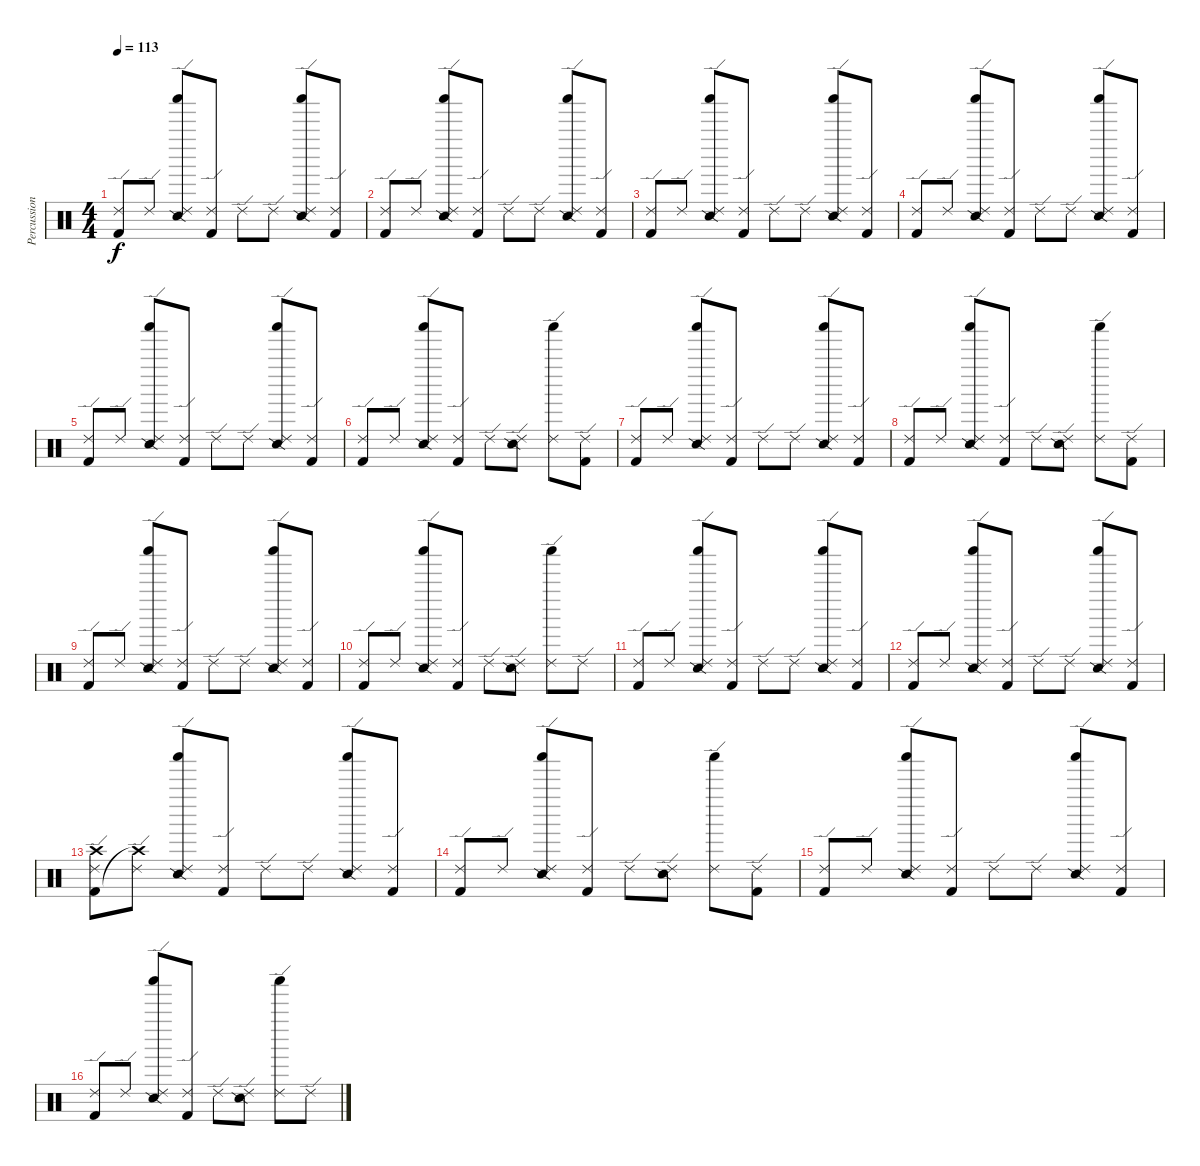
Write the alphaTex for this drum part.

\track ("Percussion" "Percussion") {instrument percussion}
\staff {score}
\articulation defaults
\ts (4 4)
\tempo 113
\clef neutral
\ks c
("Ride (edge) 2" "Kick (hit) 2").8{dy f} "Ride (edge) 2".8 ("Shaker (hit)" "Ride (edge) 2" "Snare (side stick) 2").8 ("Ride (edge) 2" "Kick (hit) 2").8 "Ride (edge) 2".8 "Ride (edge) 2".8 ("Shaker (hit)" "Ride (edge) 2" "Snare (side stick) 2").8 ("Ride (edge) 2" "Kick (hit) 2").8 |
("Ride (edge) 2" "Kick (hit) 2").8 "Ride (edge) 2".8 ("Shaker (hit)" "Ride (edge) 2" "Snare (side stick) 2").8 ("Ride (edge) 2" "Kick (hit) 2").8 "Ride (edge) 2".8 "Ride (edge) 2".8 ("Shaker (hit)" "Ride (edge) 2" "Snare (side stick) 2").8 ("Ride (edge) 2" "Kick (hit) 2").8 |
("Ride (edge) 2" "Kick (hit) 2").8 "Ride (edge) 2".8 ("Shaker (hit)" "Ride (edge) 2" "Snare (side stick) 2").8 ("Ride (edge) 2" "Kick (hit) 2").8 "Ride (edge) 2".8 "Ride (edge) 2".8 ("Shaker (hit)" "Ride (edge) 2" "Snare (side stick) 2").8 ("Ride (edge) 2" "Kick (hit) 2").8 |
("Ride (edge) 2" "Kick (hit) 2").8 "Ride (edge) 2".8 ("Shaker (hit)" "Ride (edge) 2" "Snare (side stick) 2").8 ("Ride (edge) 2" "Kick (hit) 2").8 "Ride (edge) 2".8 "Ride (edge) 2".8 ("Shaker (hit)" "Ride (edge) 2" "Snare (side stick) 2").8 ("Ride (edge) 2" "Kick (hit) 2").8 |
("Ride (edge) 2" "Kick (hit) 2").8 "Ride (edge) 2".8 ("Shaker (hit)" "Ride (edge) 2" "Snare (side stick) 2").8 ("Ride (edge) 2" "Kick (hit) 2").8 "Ride (edge) 2".8 "Ride (edge) 2".8 ("Shaker (hit)" "Ride (edge) 2" "Snare (side stick) 2").8 ("Ride (edge) 2" "Kick (hit) 2").8 |
("Ride (edge) 2" "Kick (hit) 2").8 "Ride (edge) 2".8 ("Shaker (hit)" "Ride (edge) 2" "Snare (side stick) 2").8 ("Ride (edge) 2" "Kick (hit) 2").8 "Ride (edge) 2".8 ("Ride (edge) 2" "Snare (side stick) 2").8 ("Shaker (hit)" "Ride (edge) 2").8 ("Ride (edge) 2" "Kick (hit) 2").8 |
("Ride (edge) 2" "Kick (hit) 2").8 "Ride (edge) 2".8 ("Shaker (hit)" "Ride (edge) 2" "Snare (side stick) 2").8 ("Ride (edge) 2" "Kick (hit) 2").8 "Ride (edge) 2".8 "Ride (edge) 2".8 ("Shaker (hit)" "Ride (edge) 2" "Snare (side stick) 2").8 ("Ride (edge) 2" "Kick (hit) 2").8 |
("Ride (edge) 2" "Kick (hit) 2").8 "Ride (edge) 2".8 ("Shaker (hit)" "Ride (edge) 2" "Snare (side stick) 2").8 ("Ride (edge) 2" "Kick (hit) 2").8 "Ride (edge) 2".8 ("Ride (edge) 2" "Snare (side stick) 2").8 ("Shaker (hit)" "Ride (edge) 2").8 ("Ride (edge) 2" "Kick (hit) 2").8 |
("Ride (edge) 2" "Kick (hit) 2").8 "Ride (edge) 2".8 ("Shaker (hit)" "Ride (edge) 2" "Snare (side stick) 2").8 ("Ride (edge) 2" "Kick (hit) 2").8 "Ride (edge) 2".8 "Ride (edge) 2".8 ("Shaker (hit)" "Ride (edge) 2" "Snare (side stick) 2").8 ("Ride (edge) 2" "Kick (hit) 2").8 |
("Ride (edge) 2" "Kick (hit) 2").8 "Ride (edge) 2".8 ("Shaker (hit)" "Ride (edge) 2" "Snare (side stick) 2").8 ("Ride (edge) 2" "Kick (hit) 2").8 "Ride (edge) 2".8 ("Ride (edge) 2" "Snare (side stick) 2").8 ("Shaker (hit)" "Ride (edge) 2").8 "Ride (edge) 2".8 |
("Ride (edge) 2" "Kick (hit) 2").8 "Ride (edge) 2".8 ("Shaker (hit)" "Ride (edge) 2" "Snare (side stick) 2").8 ("Ride (edge) 2" "Kick (hit) 2").8 "Ride (edge) 2".8 "Ride (edge) 2".8 ("Shaker (hit)" "Ride (edge) 2" "Snare (side stick) 2").8 ("Ride (edge) 2" "Kick (hit) 2").8 |
("Ride (edge) 2" "Kick (hit) 2").8 "Ride (edge) 2".8 ("Shaker (hit)" "Ride (edge) 2" "Snare (side stick) 2").8 ("Ride (edge) 2" "Kick (hit) 2").8 "Ride (edge) 2".8 "Ride (edge) 2".8 ("Shaker (hit)" "Ride (edge) 2" "Snare (side stick) 2").8 ("Ride (edge) 2" "Kick (hit) 2").8 |
("Ride (edge) 2" "Kick (hit) 2" "Crash high (hit)").8 ("Ride (edge) 2" "Crash high (hit)"{t}).8 ("Shaker (hit)" "Ride (edge) 2" "Snare (side stick) 2").8 ("Ride (edge) 2" "Kick (hit) 2").8 "Ride (edge) 2".8 "Ride (edge) 2".8 ("Shaker (hit)" "Ride (edge) 2" "Snare (side stick) 2").8 ("Ride (edge) 2" "Kick (hit) 2").8 |
("Ride (edge) 2" "Kick (hit) 2").8 "Ride (edge) 2".8 ("Shaker (hit)" "Ride (edge) 2" "Snare (side stick) 2").8 ("Ride (edge) 2" "Kick (hit) 2").8 "Ride (edge) 2".8 ("Ride (edge) 2" "Snare (side stick) 2").8 ("Shaker (hit)" "Ride (edge) 2").8 ("Ride (edge) 2" "Kick (hit) 2").8 |
("Ride (edge) 2" "Kick (hit) 2").8 "Ride (edge) 2".8 ("Shaker (hit)" "Ride (edge) 2" "Snare (side stick) 2").8 ("Ride (edge) 2" "Kick (hit) 2").8 "Ride (edge) 2".8 "Ride (edge) 2".8 ("Shaker (hit)" "Ride (edge) 2" "Snare (side stick) 2").8 ("Ride (edge) 2" "Kick (hit) 2").8 |
("Ride (edge) 2" "Kick (hit) 2").8 "Ride (edge) 2".8 ("Shaker (hit)" "Ride (edge) 2" "Snare (side stick) 2").8 ("Ride (edge) 2" "Kick (hit) 2").8 "Ride (edge) 2".8 ("Ride (edge) 2" "Snare (side stick) 2").8 ("Shaker (hit)" "Ride (edge) 2").8 "Ride (edge) 2".8
